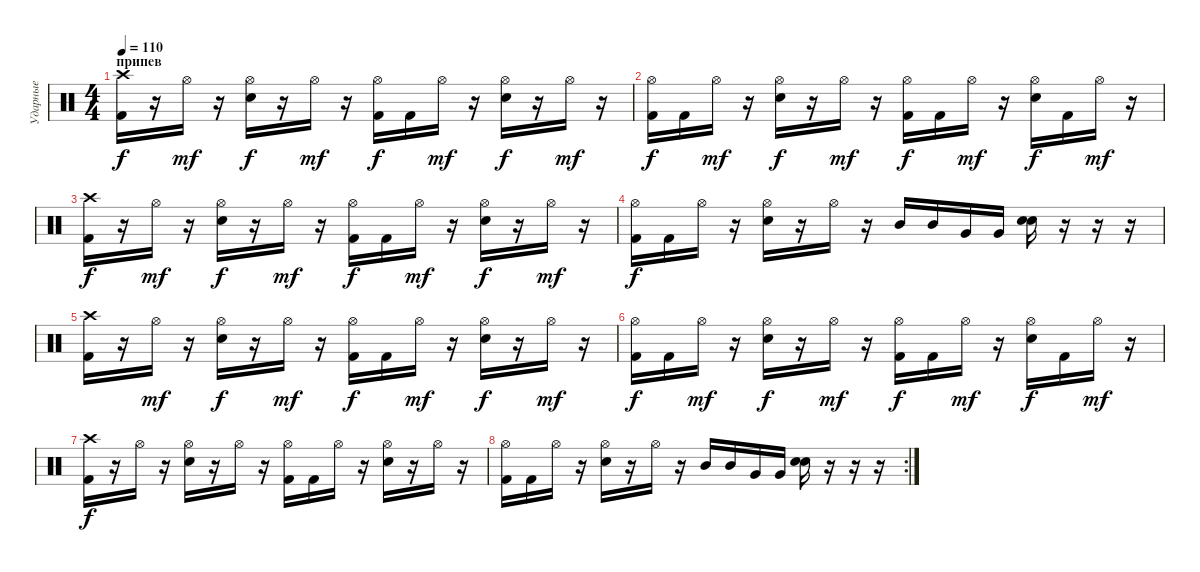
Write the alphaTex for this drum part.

\track ("Ударные" "Ударные") {instrument percussion}
\staff {score}
\articulation defaults
\ts (4 4)
\section ("" "припев")
\tempo 110
\clef neutral
\ks c
("Crash high (hit)" "Kick (hit) 2").16{dy f} r.16 "Hi-Hat (open)".16{dy mf} r.16 ("Hi-Hat (open)" "Electric Snare (hit)").16{dy f} r.16 "Hi-Hat (open)".16{dy mf} r.16 ("Hi-Hat (open)" "Kick (hit) 2").16{dy f} "Kick (hit) 2".16 "Hi-Hat (open)".16{dy mf} r.16 ("Hi-Hat (open)" "Electric Snare (hit)").16{dy f} r.16 "Hi-Hat (open)".16{dy mf} r.16 |
("Hi-Hat (open)" "Kick (hit) 2").16{dy f} "Kick (hit) 2".16 "Hi-Hat (open)".16{dy mf} r.16 ("Hi-Hat (open)" "Electric Snare (hit)").16{dy f} r.16 "Hi-Hat (open)".16{dy mf} r.16 ("Hi-Hat (open)" "Kick (hit) 2").16{dy f} "Kick (hit) 2".16 "Hi-Hat (open)".16{dy mf} r.16 ("Hi-Hat (open)" "Electric Snare (hit)").16{dy f} "Kick (hit) 2".16 "Hi-Hat (open)".16{dy mf} r.16 |
("Crash high (hit)" "Kick (hit) 2").16{dy f} r.16 "Hi-Hat (open)".16{dy mf} r.16 ("Hi-Hat (open)" "Electric Snare (hit)").16{dy f} r.16 "Hi-Hat (open)".16{dy mf} r.16 ("Hi-Hat (open)" "Kick (hit) 2").16{dy f} "Kick (hit) 2".16 "Hi-Hat (open)".16{dy mf} r.16 ("Hi-Hat (open)" "Electric Snare (hit)").16{dy f} r.16 "Hi-Hat (open)".16{dy mf} r.16 |
("Hi-Hat (open)" "Kick (hit) 2").16{dy f} "Kick (hit) 2".16 "Hi-Hat (open)".16 r.16 ("Hi-Hat (open)" "Electric Snare (hit)").16 r.16 "Hi-Hat (open)".16 r.16 "Mid Tom (hit)".16 "Mid Tom (hit)".16 "Very Low Tom (hit)".16 "Very Low Tom (hit)".16 ("Electric Snare (hit)" "Electric Snare (hit)").16 r.16 r.16 r.16 |
("Crash high (hit)" "Kick (hit) 2").16 r.16 "Hi-Hat (open)".16{dy mf} r.16 ("Hi-Hat (open)" "Electric Snare (hit)").16{dy f} r.16 "Hi-Hat (open)".16{dy mf} r.16 ("Hi-Hat (open)" "Kick (hit) 2").16{dy f} "Kick (hit) 2".16 "Hi-Hat (open)".16{dy mf} r.16 ("Hi-Hat (open)" "Electric Snare (hit)").16{dy f} r.16 "Hi-Hat (open)".16{dy mf} r.16 |
("Hi-Hat (open)" "Kick (hit) 2").16{dy f} "Kick (hit) 2".16 "Hi-Hat (open)".16{dy mf} r.16 ("Hi-Hat (open)" "Electric Snare (hit)").16{dy f} r.16 "Hi-Hat (open)".16{dy mf} r.16 ("Hi-Hat (open)" "Kick (hit) 2").16{dy f} "Kick (hit) 2".16 "Hi-Hat (open)".16{dy mf} r.16 ("Hi-Hat (open)" "Electric Snare (hit)").16{dy f} "Kick (hit) 2".16 "Hi-Hat (open)".16{dy mf} r.16 |
("Crash high (hit)" "Kick (hit) 2").16{dy f} r.16 "Hi-Hat (open)".16 r.16 ("Hi-Hat (open)" "Electric Snare (hit)").16 r.16 "Hi-Hat (open)".16 r.16 ("Hi-Hat (open)" "Kick (hit) 2").16 "Kick (hit) 2".16 "Hi-Hat (open)".16 r.16 ("Hi-Hat (open)" "Electric Snare (hit)").16 r.16 "Hi-Hat (open)".16 r.16 |
\rc 2
("Hi-Hat (open)" "Kick (hit) 2").16 "Kick (hit) 2".16 "Hi-Hat (open)".16 r.16 ("Hi-Hat (open)" "Electric Snare (hit)").16 r.16 "Hi-Hat (open)".16 r.16 "Mid Tom (hit)".16 "Mid Tom (hit)".16 "Very Low Tom (hit)".16 "Very Low Tom (hit)".16 ("Electric Snare (hit)" "Electric Snare (hit)").16 r.16 r.16 r.16
